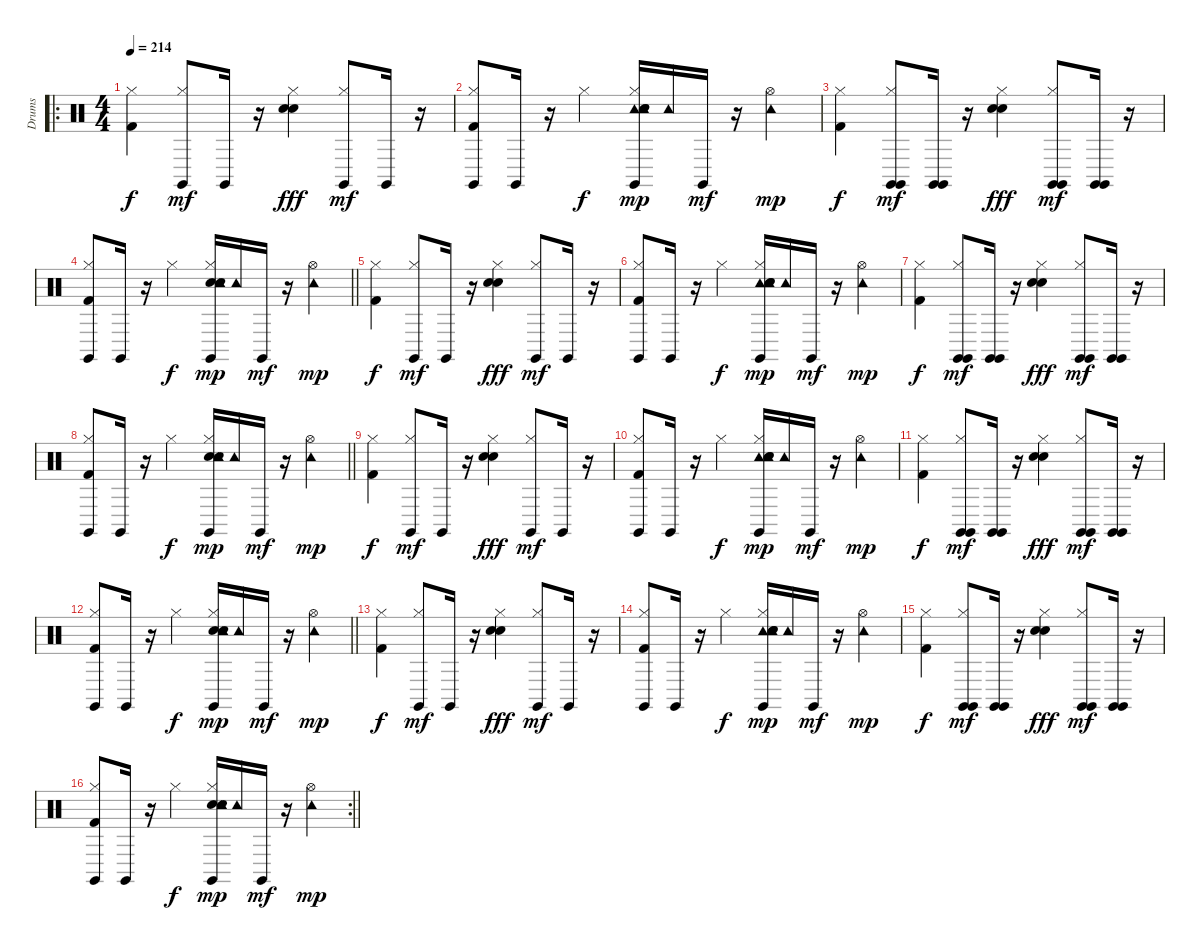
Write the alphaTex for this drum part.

\track ("Drums" "Drums") {instrument percussion}
\staff {score}
\articulation defaults
\ro
\ts (4 4)
\section ("" "")
\tempo 214
\clef neutral
\ks c
("Hi-Hat (closed)" "Kick (hit) 2").4{dy f} ("Claves (hit)" "Hi-Hat (closed)").8{dy mf} "Claves (hit)".16 r.16 ("Hand Clap (hit)" "Snare (hit) 2" "Hi-Hat (closed)").4{dy fff} ("Hi-Hat (closed)" "Claves (hit)").8{dy mf} "Claves (hit)".16 r.16 |
("Kick (hit) 2" "Claves (hit)" "Hi-Hat (closed)").8 "Claves (hit)".16 r.16 "Hi-Hat (closed)".4{dy f} ("Tambourine (hit)" "Claves (hit)" "Hi-Hat (closed)" "Hand Clap (hit)" "Snare (hit) 2" "Tambourine (hit)").16{dy mp} "Tambourine (hit)".16 "Claves (hit)".16{dy mf} r.16 ("Hi-Hat (open)" "Tambourine (hit)").4{dy mp} |
("Hi-Hat (closed)" "Kick (hit) 2").4{dy f} ("Claves (hit)" "Hi-Hat (closed)" "Claves (hit)").8{dy mf} ("Claves (hit)" "Claves (hit)").16 r.16 ("Hand Clap (hit)" "Hi-Hat (closed)" "Snare (hit) 2").4{dy fff} ("Claves (hit)" "Claves (hit)" "Hi-Hat (closed)").8{dy mf} ("Claves (hit)" "Claves (hit)").16 r.16 |
\barLineRight lightlight
("Hi-Hat (closed)" "Kick (hit) 2" "Claves (hit)").8 "Claves (hit)".16 r.16 "Hi-Hat (closed)".4{dy f} ("Hi-Hat (closed)" "Hand Clap (hit)" "Tambourine (hit)" "Snare (hit) 2" "Claves (hit)" "Tambourine (hit)").16{dy mp} "Tambourine (hit)".16 "Claves (hit)".16{dy mf} r.16 ("Tambourine (hit)" "Hi-Hat (open)").4{dy mp} |
("Hi-Hat (closed)" "Kick (hit) 2").4{dy f} ("Claves (hit)" "Hi-Hat (closed)").8{dy mf} "Claves (hit)".16 r.16 ("Hand Clap (hit)" "Snare (hit) 2" "Hi-Hat (closed)").4{dy fff} ("Hi-Hat (closed)" "Claves (hit)").8{dy mf} "Claves (hit)".16 r.16 |
("Kick (hit) 2" "Claves (hit)" "Hi-Hat (closed)").8 "Claves (hit)".16 r.16 "Hi-Hat (closed)".4{dy f} ("Tambourine (hit)" "Claves (hit)" "Hi-Hat (closed)" "Hand Clap (hit)" "Snare (hit) 2" "Tambourine (hit)").16{dy mp} "Tambourine (hit)".16 "Claves (hit)".16{dy mf} r.16 ("Hi-Hat (open)" "Tambourine (hit)").4{dy mp} |
("Hi-Hat (closed)" "Kick (hit) 2").4{dy f} ("Claves (hit)" "Hi-Hat (closed)" "Claves (hit)").8{dy mf} ("Claves (hit)" "Claves (hit)").16 r.16 ("Hand Clap (hit)" "Hi-Hat (closed)" "Snare (hit) 2").4{dy fff} ("Claves (hit)" "Claves (hit)" "Hi-Hat (closed)").8{dy mf} ("Claves (hit)" "Claves (hit)").16 r.16 |
\barLineRight lightlight
("Hi-Hat (closed)" "Kick (hit) 2" "Claves (hit)").8 "Claves (hit)".16 r.16 "Hi-Hat (closed)".4{dy f} ("Hi-Hat (closed)" "Hand Clap (hit)" "Tambourine (hit)" "Snare (hit) 2" "Claves (hit)" "Tambourine (hit)").16{dy mp} "Tambourine (hit)".16 "Claves (hit)".16{dy mf} r.16 ("Tambourine (hit)" "Hi-Hat (open)").4{dy mp} |
("Hi-Hat (closed)" "Kick (hit) 2").4{dy f} ("Claves (hit)" "Hi-Hat (closed)").8{dy mf} "Claves (hit)".16 r.16 ("Hand Clap (hit)" "Snare (hit) 2" "Hi-Hat (closed)").4{dy fff} ("Hi-Hat (closed)" "Claves (hit)").8{dy mf} "Claves (hit)".16 r.16 |
("Kick (hit) 2" "Claves (hit)" "Hi-Hat (closed)").8 "Claves (hit)".16 r.16 "Hi-Hat (closed)".4{dy f} ("Tambourine (hit)" "Claves (hit)" "Hi-Hat (closed)" "Hand Clap (hit)" "Snare (hit) 2" "Tambourine (hit)").16{dy mp} "Tambourine (hit)".16 "Claves (hit)".16{dy mf} r.16 ("Hi-Hat (open)" "Tambourine (hit)").4{dy mp} |
("Hi-Hat (closed)" "Kick (hit) 2").4{dy f} ("Claves (hit)" "Hi-Hat (closed)" "Claves (hit)").8{dy mf} ("Claves (hit)" "Claves (hit)").16 r.16 ("Hand Clap (hit)" "Hi-Hat (closed)" "Snare (hit) 2").4{dy fff} ("Claves (hit)" "Claves (hit)" "Hi-Hat (closed)").8{dy mf} ("Claves (hit)" "Claves (hit)").16 r.16 |
\barLineRight lightlight
("Hi-Hat (closed)" "Kick (hit) 2" "Claves (hit)").8 "Claves (hit)".16 r.16 "Hi-Hat (closed)".4{dy f} ("Hi-Hat (closed)" "Hand Clap (hit)" "Tambourine (hit)" "Snare (hit) 2" "Claves (hit)" "Tambourine (hit)").16{dy mp} "Tambourine (hit)".16 "Claves (hit)".16{dy mf} r.16 ("Tambourine (hit)" "Hi-Hat (open)").4{dy mp} |
("Hi-Hat (closed)" "Kick (hit) 2").4{dy f} ("Claves (hit)" "Hi-Hat (closed)").8{dy mf} "Claves (hit)".16 r.16 ("Hand Clap (hit)" "Snare (hit) 2" "Hi-Hat (closed)").4{dy fff} ("Hi-Hat (closed)" "Claves (hit)").8{dy mf} "Claves (hit)".16 r.16 |
("Kick (hit) 2" "Claves (hit)" "Hi-Hat (closed)").8 "Claves (hit)".16 r.16 "Hi-Hat (closed)".4{dy f} ("Tambourine (hit)" "Claves (hit)" "Hi-Hat (closed)" "Hand Clap (hit)" "Snare (hit) 2" "Tambourine (hit)").16{dy mp} "Tambourine (hit)".16 "Claves (hit)".16{dy mf} r.16 ("Hi-Hat (open)" "Tambourine (hit)").4{dy mp} |
("Hi-Hat (closed)" "Kick (hit) 2").4{dy f} ("Claves (hit)" "Hi-Hat (closed)" "Claves (hit)").8{dy mf} ("Claves (hit)" "Claves (hit)").16 r.16 ("Hand Clap (hit)" "Hi-Hat (closed)" "Snare (hit) 2").4{dy fff} ("Claves (hit)" "Claves (hit)" "Hi-Hat (closed)").8{dy mf} ("Claves (hit)" "Claves (hit)").16 r.16 |
\rc 2
\barLineRight lightlight
("Hi-Hat (closed)" "Kick (hit) 2" "Claves (hit)").8 "Claves (hit)".16 r.16 "Hi-Hat (closed)".4{dy f} ("Hi-Hat (closed)" "Hand Clap (hit)" "Tambourine (hit)" "Snare (hit) 2" "Claves (hit)" "Tambourine (hit)").16{dy mp} "Tambourine (hit)".16 "Claves (hit)".16{dy mf} r.16 ("Tambourine (hit)" "Hi-Hat (open)").4{dy mp}
